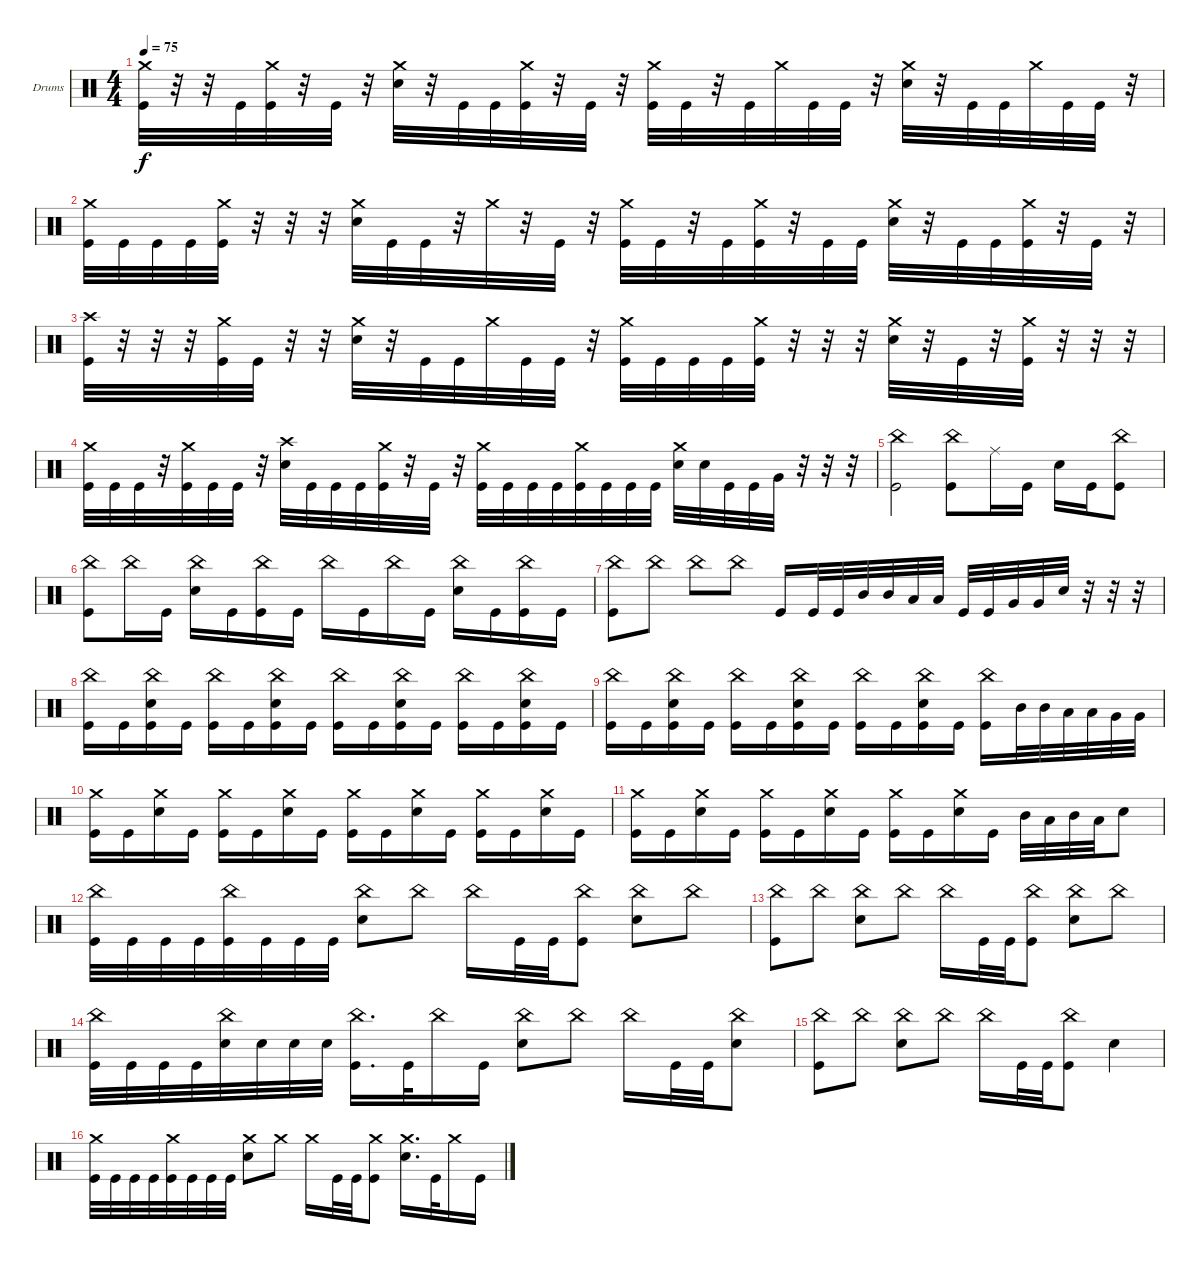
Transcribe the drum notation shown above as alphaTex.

\bracketExtendMode groupsimilarinstruments
\firstSystemTrackNameOrientation horizontal
\otherSystemsTrackNameOrientation horizontal
\track ("Drumkit" "Drums") {instrument percussion}
\staff {score}
\articulation defaults
\ts (4 4)
\tempo 75
\clef neutral
\ks c
("Kick (hit)" "Crash medium (hit)").32{dy f} r.32 r.32 "Kick (hit)".32 ("Kick (hit)" "Crash medium (hit)").32 r.32 "Kick (hit)".32 r.32 ("Snare (hit) 2" "Crash medium (hit)").32 r.32 "Kick (hit)".32 "Kick (hit)".32 ("Kick (hit)" "Crash medium (hit)").32 r.32 "Kick (hit)".32 r.32 ("Kick (hit)" "Crash medium (hit)").32 "Kick (hit)".32 r.32 "Kick (hit)".32 "Crash medium (hit)".32 "Kick (hit)".32 "Kick (hit)".32 r.32 ("Snare (hit) 2" "Crash medium (hit)").32 r.32 "Kick (hit)".32 "Kick (hit)".32 "Crash medium (hit)".32 "Kick (hit)".32 "Kick (hit)".32 r.32 |
("Crash medium (hit)" "Kick (hit)").32 "Kick (hit)".32 "Kick (hit)".32 "Kick (hit)".32 ("Crash medium (hit)" "Kick (hit)").32 r.32 r.32 r.32 ("Crash medium (hit)" "Snare (hit) 2").32 "Kick (hit)".32 "Kick (hit)".32 r.32 "Crash medium (hit)".32 r.32 "Kick (hit)".32 r.32 ("Crash medium (hit)" "Kick (hit)").32 "Kick (hit)".32 r.32 "Kick (hit)".32 ("Crash medium (hit)" "Kick (hit)").32 r.32 "Kick (hit)".32 "Kick (hit)".32 ("Crash medium (hit)" "Snare (hit) 2").32 r.32 "Kick (hit)".32 "Kick (hit)".32 ("Crash medium (hit)" "Kick (hit)").32 r.32 "Kick (hit)".32 r.32 |
("Crash high (hit)" "Kick (hit)").32 r.32 r.32 r.32 ("Crash medium (hit)" "Kick (hit)").32 "Kick (hit)".32 r.32 r.32 ("Crash medium (hit)" "Snare (hit) 2").32 r.32 "Kick (hit)".32 "Kick (hit)".32 "Crash medium (hit)".32 "Kick (hit)".32 "Kick (hit)".32 r.32 ("Crash medium (hit)" "Kick (hit)").32 "Kick (hit)".32 "Kick (hit)".32 "Kick (hit)".32 ("Crash medium (hit)" "Kick (hit)").32 r.32 r.32 r.32 ("Crash medium (hit)" "Snare (hit) 2").32 r.32 "Kick (hit)".32 r.32 ("Crash medium (hit)" "Kick (hit)").32 r.32 r.32 r.32 |
("Crash medium (hit)" "Kick (hit)").32 "Kick (hit)".32 "Kick (hit)".32 r.32 ("Crash medium (hit)" "Kick (hit)").32 "Kick (hit)".32 "Kick (hit)".32 r.32 ("Snare (hit) 2" "Crash high (hit)").32 "Kick (hit)".32 "Kick (hit)".32 "Kick (hit)".32 ("Crash medium (hit)" "Kick (hit)").32 r.32 "Kick (hit)".32 r.32 ("Crash medium (hit)" "Kick (hit)").32 "Kick (hit)".32 "Kick (hit)".32 "Kick (hit)".32 ("Crash medium (hit)" "Kick (hit)").32 "Kick (hit)".32 "Kick (hit)".32 "Kick (hit)".32 ("Crash medium (hit)" "Snare (hit) 2").32 "Snare (hit) 2".32 "Kick (hit)".32 "Kick (hit)".32 "Very Low Tom (hit)".32 r.32 r.32 r.32 |
("Kick (hit)" "China (hit)").2 ("Kick (hit)" "China (hit)").8 "Ride (middle)".16 "Kick (hit)".16 "Snare (hit) 2".16 "Kick (hit)".16 ("Kick (hit)" "China (hit)").8 |
("China (hit)" "Kick (hit)").8 "China (hit)".16 "Kick (hit)".16 ("China (hit)" "Snare (hit) 2").16 "Kick (hit)".16 ("China (hit)" "Kick (hit)").16 "Kick (hit)".16 "China (hit)".16 "Kick (hit)".16 "China (hit)".16 "Kick (hit)".16 ("China (hit)" "Snare (hit) 2").16 "Kick (hit)".16 ("China (hit)" "Kick (hit)").16 "Kick (hit)".16 |
("Kick (hit)" "China (hit)").8 "China (hit)".8 "China (hit)".8 "China (hit)".8 "Kick (hit)".16 "Kick (hit)".32 "Kick (hit)".32 "Mid Tom (hit)".32 "Mid Tom (hit)".32 "Low Tom (hit)".32 "Low Tom (hit)".32 "Kick (hit)".32 "Kick (hit)".32 "Very Low Tom (hit)".32 "Very Low Tom (hit)".32 "Snare (hit) 2".32 r.32 r.32 r.32 |
("Kick (hit)" "China (hit)").16 "Kick (hit)".16 ("Kick (hit)" "Snare (hit) 2" "China (hit)").16 "Kick (hit)".16 ("Kick (hit)" "China (hit)").16 "Kick (hit)".16 ("Kick (hit)" "China (hit)" "Snare (hit) 2").16 "Kick (hit)".16 ("Kick (hit)" "China (hit)").16 "Kick (hit)".16 ("Kick (hit)" "China (hit)" "Snare (hit) 2").16 "Kick (hit)".16 ("Kick (hit)" "China (hit)").16 "Kick (hit)".16 ("Kick (hit)" "China (hit)" "Snare (hit) 2").16 "Kick (hit)".16 |
("Kick (hit)" "China (hit)").16 "Kick (hit)".16 ("Kick (hit)" "Snare (hit) 2" "China (hit)").16 "Kick (hit)".16 ("Kick (hit)" "China (hit)").16 "Kick (hit)".16 ("Kick (hit)" "China (hit)" "Snare (hit) 2").16 "Kick (hit)".16 ("Kick (hit)" "China (hit)").16 "Kick (hit)".16 ("Kick (hit)" "China (hit)" "Snare (hit) 2").16 "Kick (hit)".16 ("Kick (hit)" "China (hit)").16 "Mid Tom (hit)".32 "Mid Tom (hit)".32 "Low Tom (hit)".32 "Low Tom (hit)".32 "Very Low Tom (hit)".32 "Very Low Tom (hit)".32 |
("Kick (hit)" "Crash medium (hit)").16 "Kick (hit)".16 ("Snare (hit) 2" "Crash medium (hit)").16 "Kick (hit)".16 ("Kick (hit)" "Crash medium (hit)").16 "Kick (hit)".16 ("Snare (hit) 2" "Crash medium (hit)").16 "Kick (hit)".16 ("Kick (hit)" "Crash medium (hit)").16 "Kick (hit)".16 ("Snare (hit) 2" "Crash medium (hit)").16 "Kick (hit)".16 ("Kick (hit)" "Crash medium (hit)").16 "Kick (hit)".16 ("Snare (hit) 2" "Crash medium (hit)").16 "Kick (hit)".16 |
("Kick (hit)" "Crash medium (hit)").16 "Kick (hit)".16 ("Snare (hit) 2" "Crash medium (hit)").16 "Kick (hit)".16 ("Kick (hit)" "Crash medium (hit)").16 "Kick (hit)".16 ("Snare (hit) 2" "Crash medium (hit)").16 "Kick (hit)".16 ("Kick (hit)" "Crash medium (hit)").16 "Kick (hit)".16 ("Snare (hit) 2" "Crash medium (hit)").16 "Kick (hit)".16 "Mid Tom (hit)".32 "Low Tom (hit)".32 "Mid Tom (hit)".32 "Low Tom (hit)".32 "Snare (hit) 2".8 |
("Kick (hit)" "China (hit)").32 "Kick (hit)".32 "Kick (hit)".32 "Kick (hit)".32 ("Kick (hit)" "China (hit)").32 "Kick (hit)".32 "Kick (hit)".32 "Kick (hit)".32 ("Snare (hit) 2" "China (hit)").8 "China (hit)".8 "China (hit)".16 "Kick (hit)".32 "Kick (hit)".32 ("Kick (hit)" "China (hit)").8 ("China (hit)" "Snare (hit) 2").8 "China (hit)".8 |
("Kick (hit)" "China (hit)").8 "China (hit)".8 ("Snare (hit) 2" "China (hit)").8 "China (hit)".8 "China (hit)".16 "Kick (hit)".32 "Kick (hit)".32 ("Kick (hit)" "China (hit)").8 ("China (hit)" "Snare (hit) 2").8 "China (hit)".8 |
("Kick (hit)" "China (hit)").32 "Kick (hit)".32 "Kick (hit)".32 "Kick (hit)".32 ("China (hit)" "Snare (hit) 2").32 "Snare (hit) 2".32 "Snare (hit) 2".32 "Snare (hit) 2".32 ("China (hit)" "Kick (hit)").16{d} "Kick (hit)".32 "China (hit)".16 "Kick (hit)".16 ("China (hit)" "Snare (hit) 2").8 "China (hit)".8 "China (hit)".16 "Kick (hit)".32 "Kick (hit)".32 ("China (hit)" "Snare (hit) 2").8 |
("Kick (hit)" "China (hit)").8 "China (hit)".8 ("Snare (hit) 2" "China (hit)").8 "China (hit)".8 "China (hit)".16 "Kick (hit)".32 "Kick (hit)".32 ("Kick (hit)" "China (hit)").8 "Snare (hit) 2".4 |
("Kick (hit)" "Crash medium (hit)").32 "Kick (hit)".32 "Kick (hit)".32 "Kick (hit)".32 ("Kick (hit)" "Crash medium (hit)").32 "Kick (hit)".32 "Kick (hit)".32 "Kick (hit)".32 ("Snare (hit) 2" "Crash medium (hit)").8 "Crash medium (hit)".8 "Crash medium (hit)".16 "Kick (hit)".32 "Kick (hit)".32 ("Kick (hit)" "Crash medium (hit)").8 ("Snare (hit) 2" "Crash medium (hit)").16{d} "Kick (hit)".32 "Crash medium (hit)".16 "Kick (hit)".16
